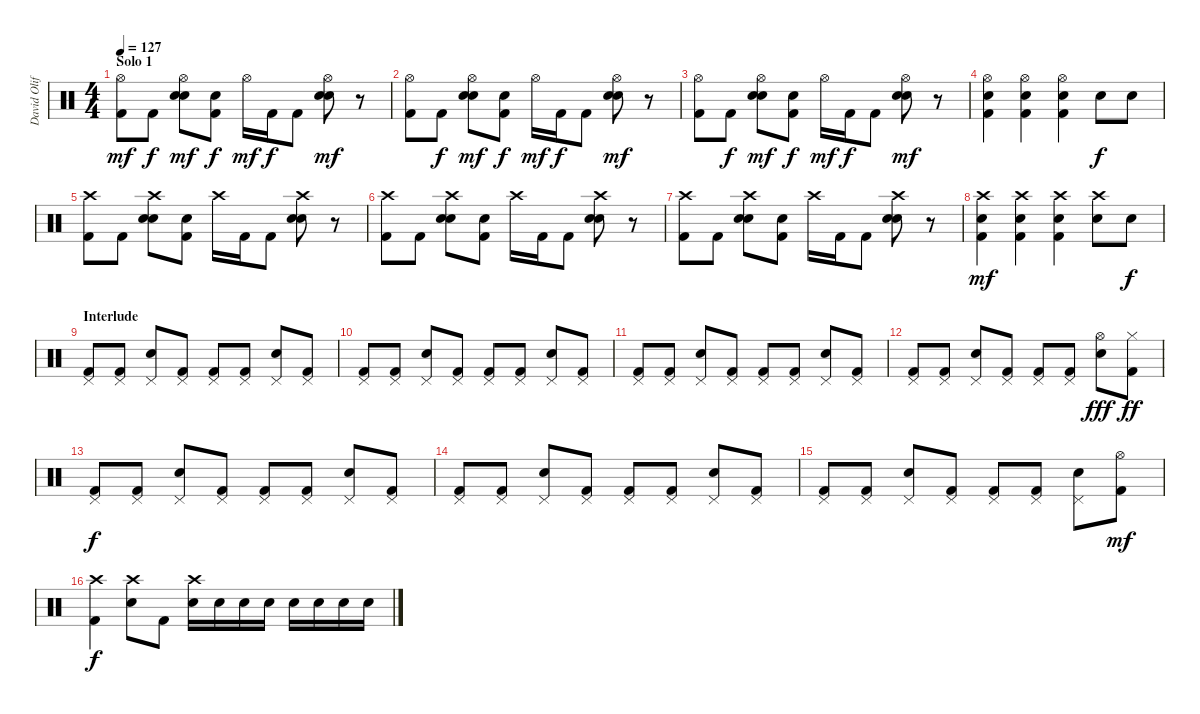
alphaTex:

\track ("David Oliffe" "David Olif") {instrument percussion}
\staff {score}
\articulation defaults
\ts (4 4)
\section ("" "Solo 1")
\tempo 127
\clef neutral
\ks c
("Hi-Hat (open)" "Kick (hit) 2").8{dy mf} "Kick (hit) 2".8{dy f} ("Hi-Hat (open)" "Electric Snare (hit)" "Hand Clap (hit)").8{dy mf} ("Hand Clap (hit)" "Kick (hit) 2").8{dy f} "Hi-Hat (open)".16{dy mf} "Kick (hit) 2".16{dy f} "Kick (hit) 2".8 ("Hi-Hat (open)" "Electric Snare (hit)" "Hand Clap (hit)").8{dy mf} r.8 |
("Hi-Hat (open)" "Kick (hit) 2").8 "Kick (hit) 2".8{dy f} ("Hi-Hat (open)" "Electric Snare (hit)" "Hand Clap (hit)").8{dy mf} ("Hand Clap (hit)" "Kick (hit) 2").8{dy f} "Hi-Hat (open)".16{dy mf} "Kick (hit) 2".16{dy f} "Kick (hit) 2".8 ("Hi-Hat (open)" "Electric Snare (hit)" "Hand Clap (hit)").8{dy mf} r.8 |
("Hi-Hat (open)" "Kick (hit) 2").8 "Kick (hit) 2".8{dy f} ("Hi-Hat (open)" "Electric Snare (hit)" "Hand Clap (hit)").8{dy mf} ("Hand Clap (hit)" "Kick (hit) 2").8{dy f} "Hi-Hat (open)".16{dy mf} "Kick (hit) 2".16{dy f} "Kick (hit) 2".8 ("Hi-Hat (open)" "Electric Snare (hit)" "Hand Clap (hit)").8{dy mf} r.8 |
("Hi-Hat (open)" "Electric Snare (hit)" "Kick (hit) 2").4 ("Hi-Hat (open)" "Electric Snare (hit)" "Kick (hit) 2").4 ("Hi-Hat (open)" "Electric Snare (hit)" "Kick (hit) 2").4 "Electric Snare (hit)".8{dy f} "Electric Snare (hit)".8 |
("Crash high (hit)" "Kick (hit) 2").8 "Kick (hit) 2".8 ("Crash high (hit)" "Electric Snare (hit)" "Hand Clap (hit)").8 ("Hand Clap (hit)" "Kick (hit) 2").8 "Crash high (hit)".16 "Kick (hit) 2".16 "Kick (hit) 2".8 ("Crash high (hit)" "Electric Snare (hit)" "Hand Clap (hit)").8 r.8 |
("Crash high (hit)" "Kick (hit) 2").8 "Kick (hit) 2".8 ("Crash high (hit)" "Electric Snare (hit)" "Hand Clap (hit)").8 ("Hand Clap (hit)" "Kick (hit) 2").8 "Crash high (hit)".16 "Kick (hit) 2".16 "Kick (hit) 2".8 ("Crash high (hit)" "Electric Snare (hit)" "Hand Clap (hit)").8 r.8 |
("Crash high (hit)" "Kick (hit) 2").8 "Kick (hit) 2".8 ("Crash high (hit)" "Electric Snare (hit)" "Hand Clap (hit)").8 ("Hand Clap (hit)" "Kick (hit) 2").8 "Crash high (hit)".16 "Kick (hit) 2".16 "Kick (hit) 2".8 ("Crash high (hit)" "Electric Snare (hit)" "Hand Clap (hit)").8 r.8 |
("Crash high (hit)" "Electric Snare (hit)" "Kick (hit) 2").4{dy mf} ("Crash high (hit)" "Electric Snare (hit)" "Kick (hit) 2").4 ("Crash high (hit)" "Electric Snare (hit)" "Kick (hit) 2").4 ("Crash high (hit)" "Electric Snare (hit)").8 "Electric Snare (hit)".8{dy f} |
\section ("" "Interlude")
("Pedal Hi-Hat (hit)" "Kick (hit) 2").8 ("Pedal Hi-Hat (hit)" "Kick (hit) 2").8 ("Pedal Hi-Hat (hit)" "Electric Snare (hit)").8 ("Pedal Hi-Hat (hit)" "Kick (hit) 2").8 ("Pedal Hi-Hat (hit)" "Kick (hit) 2").8 ("Pedal Hi-Hat (hit)" "Kick (hit) 2").8 ("Pedal Hi-Hat (hit)" "Electric Snare (hit)").8 ("Pedal Hi-Hat (hit)" "Kick (hit) 2").8 |
("Pedal Hi-Hat (hit)" "Kick (hit) 2").8 ("Pedal Hi-Hat (hit)" "Kick (hit) 2").8 ("Pedal Hi-Hat (hit)" "Electric Snare (hit)").8 ("Pedal Hi-Hat (hit)" "Kick (hit) 2").8 ("Pedal Hi-Hat (hit)" "Kick (hit) 2").8 ("Pedal Hi-Hat (hit)" "Kick (hit) 2").8 ("Pedal Hi-Hat (hit)" "Electric Snare (hit)").8 ("Pedal Hi-Hat (hit)" "Kick (hit) 2").8 |
("Pedal Hi-Hat (hit)" "Kick (hit) 2").8 ("Pedal Hi-Hat (hit)" "Kick (hit) 2").8 ("Pedal Hi-Hat (hit)" "Electric Snare (hit)").8 ("Pedal Hi-Hat (hit)" "Kick (hit) 2").8 ("Pedal Hi-Hat (hit)" "Kick (hit) 2").8 ("Pedal Hi-Hat (hit)" "Kick (hit) 2").8 ("Pedal Hi-Hat (hit)" "Electric Snare (hit)").8 ("Pedal Hi-Hat (hit)" "Kick (hit) 2").8 |
("Pedal Hi-Hat (hit)" "Kick (hit) 2").8 ("Pedal Hi-Hat (hit)" "Kick (hit) 2").8 ("Pedal Hi-Hat (hit)" "Electric Snare (hit)").8 ("Pedal Hi-Hat (hit)" "Kick (hit) 2").8 ("Pedal Hi-Hat (hit)" "Kick (hit) 2").8 ("Pedal Hi-Hat (hit)" "Kick (hit) 2").8 ("Hi-Hat (open)" "Electric Snare (hit)").8{dy fff} ("Hi-Hat (closed)" "Kick (hit) 2").8{dy ff} |
("Pedal Hi-Hat (hit)" "Kick (hit) 2").8{dy f} ("Pedal Hi-Hat (hit)" "Kick (hit) 2").8 ("Pedal Hi-Hat (hit)" "Electric Snare (hit)").8 ("Pedal Hi-Hat (hit)" "Kick (hit) 2").8 ("Pedal Hi-Hat (hit)" "Kick (hit) 2").8 ("Pedal Hi-Hat (hit)" "Kick (hit) 2").8 ("Pedal Hi-Hat (hit)" "Electric Snare (hit)").8 ("Pedal Hi-Hat (hit)" "Kick (hit) 2").8 |
("Pedal Hi-Hat (hit)" "Kick (hit) 2").8 ("Pedal Hi-Hat (hit)" "Kick (hit) 2").8 ("Pedal Hi-Hat (hit)" "Electric Snare (hit)").8 ("Pedal Hi-Hat (hit)" "Kick (hit) 2").8 ("Pedal Hi-Hat (hit)" "Kick (hit) 2").8 ("Pedal Hi-Hat (hit)" "Kick (hit) 2").8 ("Pedal Hi-Hat (hit)" "Electric Snare (hit)").8 ("Pedal Hi-Hat (hit)" "Kick (hit) 2").8 |
("Pedal Hi-Hat (hit)" "Kick (hit) 2").8 ("Pedal Hi-Hat (hit)" "Kick (hit) 2").8 ("Pedal Hi-Hat (hit)" "Electric Snare (hit)").8 ("Pedal Hi-Hat (hit)" "Kick (hit) 2").8 ("Pedal Hi-Hat (hit)" "Kick (hit) 2").8 ("Pedal Hi-Hat (hit)" "Kick (hit) 2").8 ("Pedal Hi-Hat (hit)" "Electric Snare (hit)").8 ("Hi-Hat (open)" "Kick (hit) 2").8{dy mf} |
("Crash high (hit)" "Kick (hit) 2").4{dy f} ("Crash high (hit)" "Electric Snare (hit)").8 "Kick (hit) 2".8 ("Crash high (hit)" "Electric Snare (hit)").16 "Electric Snare (hit)".16 "Electric Snare (hit)".16 "Electric Snare (hit)".16 "Electric Snare (hit)".16 "Electric Snare (hit)".16 "Electric Snare (hit)".16 "Electric Snare (hit)".16
